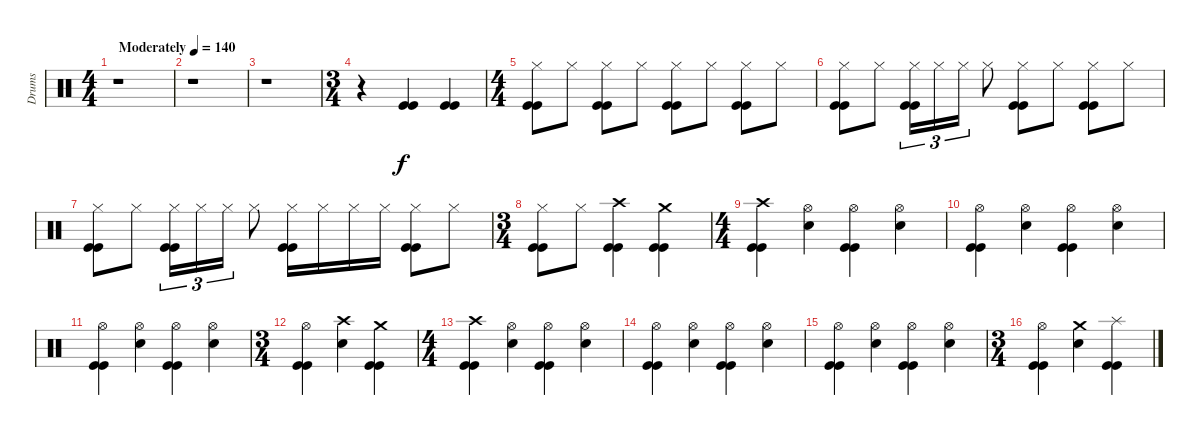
\track ("Drums" "Drums") {instrument percussion}
\staff {score}
\articulation defaults
\ts (4 4)
\tempo (140 "Moderately")
\clef neutral
\ks c
r.1{dy f} |
r.1 |
r.1 |
\ts (3 4)
r.4 ("Kick (hit)" "Kick (hit)").4 ("Kick (hit)" "Kick (hit)").4 |
\ts (4 4)
("Kick (hit)" "Kick (hit)" "Hi-Hat (closed)").8 "Hi-Hat (closed)".8 ("Kick (hit)" "Kick (hit)" "Hi-Hat (closed)").8 "Hi-Hat (closed)".8 ("Kick (hit)" "Kick (hit)" "Hi-Hat (closed)").8 "Hi-Hat (closed)".8 ("Kick (hit)" "Kick (hit)" "Hi-Hat (closed)").8 "Hi-Hat (closed)".8 |
("Kick (hit)" "Kick (hit)" "Hi-Hat (closed)").8 "Hi-Hat (closed)".8 ("Kick (hit)" "Kick (hit)" "Hi-Hat (closed)").16{tu (3 2)} "Hi-Hat (closed)".16{tu (3 2)} "Hi-Hat (closed)".16{tu (3 2)} "Hi-Hat (closed)".8 ("Kick (hit)" "Kick (hit)" "Hi-Hat (closed)").8 "Hi-Hat (closed)".8 ("Kick (hit)" "Kick (hit)" "Hi-Hat (closed)").8 "Hi-Hat (closed)".8 |
("Kick (hit)" "Kick (hit)" "Hi-Hat (closed)").8 "Hi-Hat (closed)".8 ("Kick (hit)" "Kick (hit)" "Hi-Hat (closed)").16{tu (3 2)} "Hi-Hat (closed)".16{tu (3 2)} "Hi-Hat (closed)".16{tu (3 2)} "Hi-Hat (closed)".8 ("Kick (hit)" "Kick (hit)" "Hi-Hat (closed)").16 "Hi-Hat (closed)".16 "Hi-Hat (closed)".16 "Hi-Hat (closed)".16 ("Kick (hit)" "Kick (hit)" "Hi-Hat (closed)").8 "Hi-Hat (closed)".8 |
\ts (3 4)
("Kick (hit)" "Kick (hit)" "Hi-Hat (closed)").8 "Hi-Hat (closed)".8 ("Kick (hit)" "Kick (hit)" "Crash high (hit)").4 ("Kick (hit)" "Kick (hit)" "Crash medium (hit)").4 |
\ts (4 4)
("Kick (hit)" "Kick (hit)" "Crash high (hit)").4 ("Snare (hit) 2" "Hi-Hat (open)").4 ("Kick (hit)" "Kick (hit)" "Hi-Hat (open)").4 ("Snare (hit) 2" "Hi-Hat (open)").4 |
("Kick (hit)" "Kick (hit)" "Hi-Hat (open)").4 ("Snare (hit) 2" "Hi-Hat (open)").4 ("Kick (hit)" "Kick (hit)" "Hi-Hat (open)").4 ("Snare (hit) 2" "Hi-Hat (open)").4 |
("Kick (hit)" "Kick (hit)" "Hi-Hat (open)").4 ("Snare (hit) 2" "Hi-Hat (open)").4 ("Kick (hit)" "Kick (hit)" "Hi-Hat (open)").4 ("Snare (hit) 2" "Hi-Hat (open)").4 |
\ts (3 4)
("Kick (hit)" "Kick (hit)" "Hi-Hat (open)").4 ("Snare (hit) 2" "Crash high (hit)").4 ("Kick (hit)" "Kick (hit)" "Crash medium (hit)").4 |
\ts (4 4)
("Kick (hit)" "Kick (hit)" "Crash high (hit)").4 ("Snare (hit) 2" "Hi-Hat (open)").4 ("Kick (hit)" "Kick (hit)" "Hi-Hat (open)").4 ("Snare (hit) 2" "Hi-Hat (open)").4 |
("Kick (hit)" "Kick (hit)" "Hi-Hat (open)").4 ("Snare (hit) 2" "Hi-Hat (open)").4 ("Kick (hit)" "Kick (hit)" "Hi-Hat (open)").4 ("Snare (hit) 2" "Hi-Hat (open)").4 |
("Kick (hit)" "Kick (hit)" "Hi-Hat (open)").4 ("Snare (hit) 2" "Hi-Hat (open)").4 ("Kick (hit)" "Kick (hit)" "Hi-Hat (open)").4 ("Snare (hit) 2" "Hi-Hat (open)").4 |
\ts (3 4)
("Kick (hit)" "Kick (hit)" "Hi-Hat (open)").4 ("Snare (hit) 2" "Crash medium (hit)").4 ("Kick (hit)" "Kick (hit)" "Splash (hit)").4
